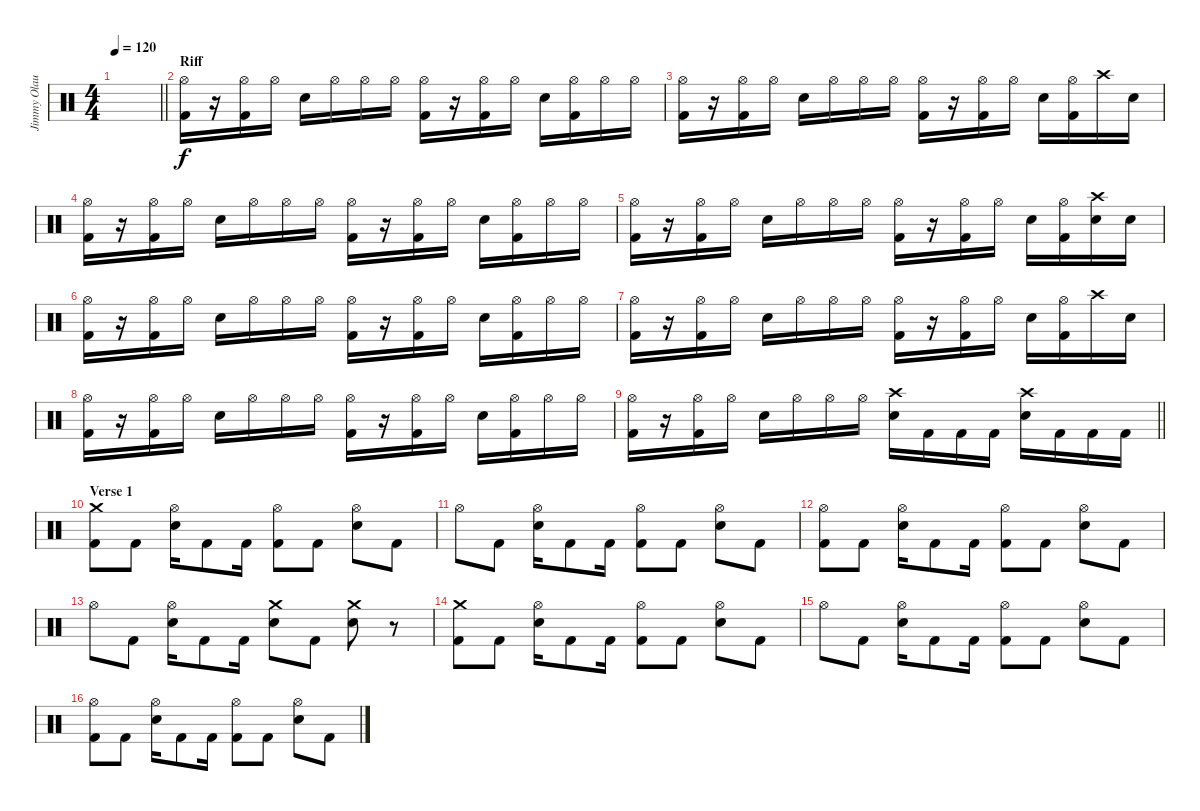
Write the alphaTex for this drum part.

\track ("Jimmy Olausson" "Jimmy Olau") {instrument percussion}
\staff {score}
\articulation defaults
\ts (4 4)
\tempo 120
\clef neutral
\barLineRight lightlight
\ks c
|
\section ("" "Riff")
("Hi-Hat (open)" "Kick (hit) 2").16{dy f} r.16 ("Hi-Hat (open)" "Kick (hit) 2").16 "Hi-Hat (open)".16 "Snare (hit) 2".16 "Hi-Hat (open)".16 "Hi-Hat (open)".16 "Hi-Hat (open)".16 ("Hi-Hat (open)" "Kick (hit) 2").16 r.16 ("Hi-Hat (open)" "Kick (hit) 2").16 "Hi-Hat (open)".16 "Snare (hit) 2".16 ("Hi-Hat (open)" "Kick (hit) 2").16 "Hi-Hat (open)".16 "Hi-Hat (open)".16 |
("Hi-Hat (open)" "Kick (hit) 2").16 r.16 ("Hi-Hat (open)" "Kick (hit) 2").16 "Hi-Hat (open)".16 "Snare (hit) 2".16 "Hi-Hat (open)".16 "Hi-Hat (open)".16 "Hi-Hat (open)".16 ("Hi-Hat (open)" "Kick (hit) 2").16 r.16 ("Hi-Hat (open)" "Kick (hit) 2").16 "Hi-Hat (open)".16 "Snare (hit) 2".16 ("Hi-Hat (open)" "Kick (hit) 2").16 "Crash high (hit)".16 "Snare (hit) 2".16 |
("Hi-Hat (open)" "Kick (hit) 2").16 r.16 ("Hi-Hat (open)" "Kick (hit) 2").16 "Hi-Hat (open)".16 "Snare (hit) 2".16 "Hi-Hat (open)".16 "Hi-Hat (open)".16 "Hi-Hat (open)".16 ("Hi-Hat (open)" "Kick (hit) 2").16 r.16 ("Hi-Hat (open)" "Kick (hit) 2").16 "Hi-Hat (open)".16 "Snare (hit) 2".16 ("Hi-Hat (open)" "Kick (hit) 2").16 "Hi-Hat (open)".16 "Hi-Hat (open)".16 |
("Hi-Hat (open)" "Kick (hit) 2").16 r.16 ("Hi-Hat (open)" "Kick (hit) 2").16 "Hi-Hat (open)".16 "Snare (hit) 2".16 "Hi-Hat (open)".16 "Hi-Hat (open)".16 "Hi-Hat (open)".16 ("Hi-Hat (open)" "Kick (hit) 2").16 r.16 ("Hi-Hat (open)" "Kick (hit) 2").16 "Hi-Hat (open)".16 "Snare (hit) 2".16 ("Hi-Hat (open)" "Kick (hit) 2").16 ("Crash high (hit)" "Snare (hit) 2").16 "Snare (hit) 2".16 |
("Hi-Hat (open)" "Kick (hit) 2").16 r.16 ("Hi-Hat (open)" "Kick (hit) 2").16 "Hi-Hat (open)".16 "Snare (hit) 2".16 "Hi-Hat (open)".16 "Hi-Hat (open)".16 "Hi-Hat (open)".16 ("Hi-Hat (open)" "Kick (hit) 2").16 r.16 ("Hi-Hat (open)" "Kick (hit) 2").16 "Hi-Hat (open)".16 "Snare (hit) 2".16 ("Hi-Hat (open)" "Kick (hit) 2").16 "Hi-Hat (open)".16 "Hi-Hat (open)".16 |
("Hi-Hat (open)" "Kick (hit) 2").16 r.16 ("Hi-Hat (open)" "Kick (hit) 2").16 "Hi-Hat (open)".16 "Snare (hit) 2".16 "Hi-Hat (open)".16 "Hi-Hat (open)".16 "Hi-Hat (open)".16 ("Hi-Hat (open)" "Kick (hit) 2").16 r.16 ("Hi-Hat (open)" "Kick (hit) 2").16 "Hi-Hat (open)".16 "Snare (hit) 2".16 ("Hi-Hat (open)" "Kick (hit) 2").16 "Crash high (hit)".16 "Snare (hit) 2".16 |
("Hi-Hat (open)" "Kick (hit) 2").16 r.16 ("Hi-Hat (open)" "Kick (hit) 2").16 "Hi-Hat (open)".16 "Snare (hit) 2".16 "Hi-Hat (open)".16 "Hi-Hat (open)".16 "Hi-Hat (open)".16 ("Hi-Hat (open)" "Kick (hit) 2").16 r.16 ("Hi-Hat (open)" "Kick (hit) 2").16 "Hi-Hat (open)".16 "Snare (hit) 2".16 ("Hi-Hat (open)" "Kick (hit) 2").16 "Hi-Hat (open)".16 "Hi-Hat (open)".16 |
\barLineRight lightlight
("Hi-Hat (open)" "Kick (hit) 2").16 r.16 ("Hi-Hat (open)" "Kick (hit) 2").16 "Hi-Hat (open)".16 "Snare (hit) 2".16 "Hi-Hat (open)".16 "Hi-Hat (open)".16 "Hi-Hat (open)".16 ("Crash high (hit)" "Snare (hit) 2").16 "Kick (hit) 2".16 "Kick (hit) 2".16 "Kick (hit) 2".16 ("Crash high (hit)" "Snare (hit) 2").16 "Kick (hit) 2".16 "Kick (hit) 2".16 "Kick (hit) 2".16 |
\section ("" "Verse 1")
("Crash medium (hit)" "Kick (hit) 2").8 "Kick (hit) 2".8 ("Hi-Hat (open)" "Snare (hit) 2").16 "Kick (hit) 2".8 "Kick (hit) 2".16 ("Hi-Hat (open)" "Kick (hit) 2").8 "Kick (hit) 2".8 ("Hi-Hat (open)" "Snare (hit) 2").8 "Kick (hit) 2".8 |
"Hi-Hat (open)".8 "Kick (hit) 2".8 ("Hi-Hat (open)" "Snare (hit) 2").16 "Kick (hit) 2".8 "Kick (hit) 2".16 ("Hi-Hat (open)" "Kick (hit) 2").8 "Kick (hit) 2".8 ("Hi-Hat (open)" "Snare (hit) 2").8 "Kick (hit) 2".8 |
("Hi-Hat (open)" "Kick (hit) 2").8 "Kick (hit) 2".8 ("Hi-Hat (open)" "Snare (hit) 2").16 "Kick (hit) 2".8 "Kick (hit) 2".16 ("Hi-Hat (open)" "Kick (hit) 2").8 "Kick (hit) 2".8 ("Hi-Hat (open)" "Snare (hit) 2").8 "Kick (hit) 2".8 |
"Hi-Hat (open)".8 "Kick (hit) 2".8 ("Hi-Hat (open)" "Snare (hit) 2").16 "Kick (hit) 2".8 "Kick (hit) 2".16 ("Crash medium (hit)" "Snare (hit) 2").8 "Kick (hit) 2".8 ("Crash medium (hit)" "Snare (hit) 2").8 r.8 |
("Crash medium (hit)" "Kick (hit) 2").8 "Kick (hit) 2".8 ("Hi-Hat (open)" "Snare (hit) 2").16 "Kick (hit) 2".8 "Kick (hit) 2".16 ("Hi-Hat (open)" "Kick (hit) 2").8 "Kick (hit) 2".8 ("Hi-Hat (open)" "Snare (hit) 2").8 "Kick (hit) 2".8 |
"Hi-Hat (open)".8 "Kick (hit) 2".8 ("Hi-Hat (open)" "Snare (hit) 2").16 "Kick (hit) 2".8 "Kick (hit) 2".16 ("Hi-Hat (open)" "Kick (hit) 2").8 "Kick (hit) 2".8 ("Hi-Hat (open)" "Snare (hit) 2").8 "Kick (hit) 2".8 |
("Hi-Hat (open)" "Kick (hit) 2").8 "Kick (hit) 2".8 ("Hi-Hat (open)" "Snare (hit) 2").16 "Kick (hit) 2".8 "Kick (hit) 2".16 ("Hi-Hat (open)" "Kick (hit) 2").8 "Kick (hit) 2".8 ("Hi-Hat (open)" "Snare (hit) 2").8 "Kick (hit) 2".8
